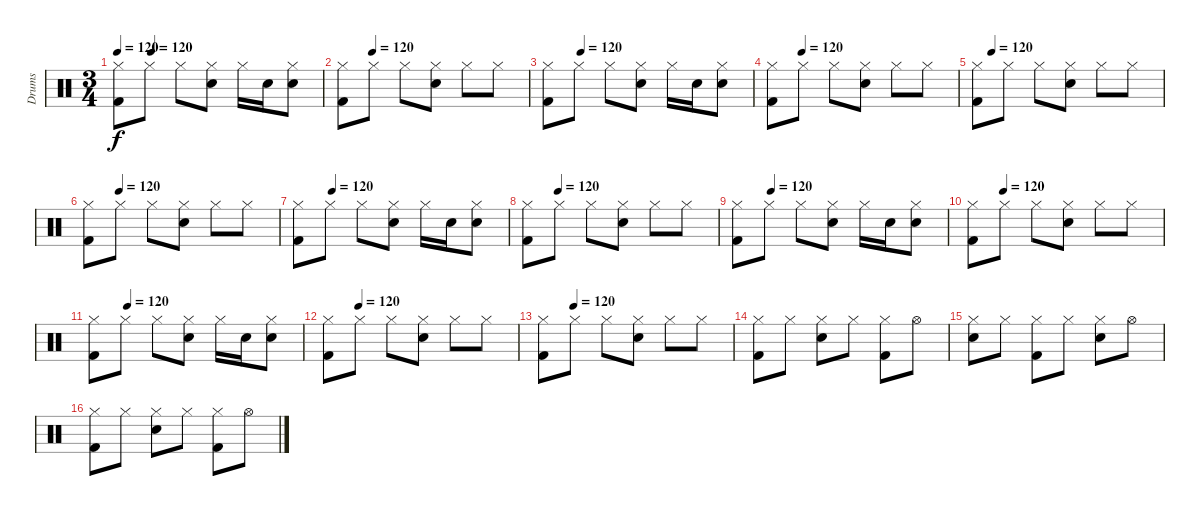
\track ("Drums" "Drums") {instrument percussion}
\staff {score}
\articulation defaults
\ts (3 4)
\tempo 120
\tempo (120 0.16666666666666666)
\clef neutral
\ks c
("Hi-Hat (closed)" "Kick (hit) 2").8{dy f} "Hi-Hat (closed)".8 "Hi-Hat (closed)".8 ("Electric Snare (hit)" "Hi-Hat (closed)").8 "Hi-Hat (closed)".16 "Electric Snare (hit)".16 ("Electric Snare (hit)" "Hi-Hat (closed)").8 |
\tempo (120 0.16666666666666666)
("Hi-Hat (closed)" "Kick (hit) 2").8 "Hi-Hat (closed)".8 "Hi-Hat (closed)".8 ("Electric Snare (hit)" "Hi-Hat (closed)").8 "Hi-Hat (closed)".8 "Hi-Hat (closed)".8 |
\tempo (120 0.16666666666666666)
("Hi-Hat (closed)" "Kick (hit) 2").8 "Hi-Hat (closed)".8 "Hi-Hat (closed)".8 ("Electric Snare (hit)" "Hi-Hat (closed)").8 "Hi-Hat (closed)".16 "Snare (hit) 2".16 ("Snare (hit) 2" "Hi-Hat (closed)").8 |
\tempo (120 0.16666666666666666)
("Hi-Hat (closed)" "Kick (hit) 2").8 "Hi-Hat (closed)".8 "Hi-Hat (closed)".8 ("Electric Snare (hit)" "Hi-Hat (closed)").8 "Hi-Hat (closed)".8 "Hi-Hat (closed)".8 |
\tempo (120 0.08333333333333333)
("Hi-Hat (closed)" "Kick (hit) 2").8 "Hi-Hat (closed)".8 "Hi-Hat (closed)".8 ("Electric Snare (hit)" "Hi-Hat (closed)").8 "Hi-Hat (closed)".8 "Hi-Hat (closed)".8 |
\tempo (120 0.16666666666666666)
("Hi-Hat (closed)" "Kick (hit) 2").8 "Hi-Hat (closed)".8 "Hi-Hat (closed)".8 ("Electric Snare (hit)" "Hi-Hat (closed)").8 "Hi-Hat (closed)".8 "Hi-Hat (closed)".8 |
\tempo (120 0.16666666666666666)
("Hi-Hat (closed)" "Kick (hit) 2").8 "Hi-Hat (closed)".8 "Hi-Hat (closed)".8 ("Electric Snare (hit)" "Hi-Hat (closed)").8 "Hi-Hat (closed)".16 "Snare (hit) 2".16 ("Snare (hit) 2" "Hi-Hat (closed)").8 |
\tempo (120 0.16666666666666666)
("Hi-Hat (closed)" "Kick (hit) 2").8 "Hi-Hat (closed)".8 "Hi-Hat (closed)".8 ("Electric Snare (hit)" "Hi-Hat (closed)").8 "Hi-Hat (closed)".8 "Hi-Hat (closed)".8 |
\tempo (120 0.16666666666666666)
("Hi-Hat (closed)" "Kick (hit) 2").8 "Hi-Hat (closed)".8 "Hi-Hat (closed)".8 ("Electric Snare (hit)" "Hi-Hat (closed)").8 "Hi-Hat (closed)".16 "Snare (hit) 2".16 ("Snare (hit) 2" "Hi-Hat (closed)").8 |
\tempo (120 0.16666666666666666)
("Hi-Hat (closed)" "Kick (hit) 2").8 "Hi-Hat (closed)".8 "Hi-Hat (closed)".8 ("Electric Snare (hit)" "Hi-Hat (closed)").8 "Hi-Hat (closed)".8 "Hi-Hat (closed)".8 |
\tempo (120 0.16666666666666666)
("Hi-Hat (closed)" "Kick (hit) 2").8 "Hi-Hat (closed)".8 "Hi-Hat (closed)".8 ("Electric Snare (hit)" "Hi-Hat (closed)").8 "Hi-Hat (closed)".16 "Electric Snare (hit)".16 ("Electric Snare (hit)" "Hi-Hat (closed)").8 |
\tempo (120 0.16666666666666666)
("Hi-Hat (closed)" "Kick (hit) 2").8 "Hi-Hat (closed)".8 "Hi-Hat (closed)".8 ("Electric Snare (hit)" "Hi-Hat (closed)").8 "Hi-Hat (closed)".8 "Hi-Hat (closed)".8 |
\tempo (120 0.16666666666666666)
("Hi-Hat (closed)" "Kick (hit) 2").8 "Hi-Hat (closed)".8 "Hi-Hat (closed)".8 ("Electric Snare (hit)" "Hi-Hat (closed)").8 "Hi-Hat (closed)".8 "Hi-Hat (closed)".8 |
("Hi-Hat (closed)" "Kick (hit) 2").8 "Hi-Hat (closed)".8 ("Hi-Hat (closed)" "Snare (hit) 2").8 "Hi-Hat (closed)".8 ("Kick (hit) 2" "Hi-Hat (closed)").8 "Hi-Hat (open)".8 |
("Hi-Hat (closed)" "Snare (hit) 2").8 "Hi-Hat (closed)".8 ("Kick (hit) 2" "Hi-Hat (closed)").8 "Hi-Hat (closed)".8 ("Electric Snare (hit)" "Hi-Hat (closed)").8 "Hi-Hat (open)".8 |
("Hi-Hat (closed)" "Kick (hit) 2").8 "Hi-Hat (closed)".8 ("Electric Snare (hit)" "Hi-Hat (closed)").8 "Hi-Hat (closed)".8 ("Kick (hit) 2" "Hi-Hat (closed)").8 "Hi-Hat (open)".8
